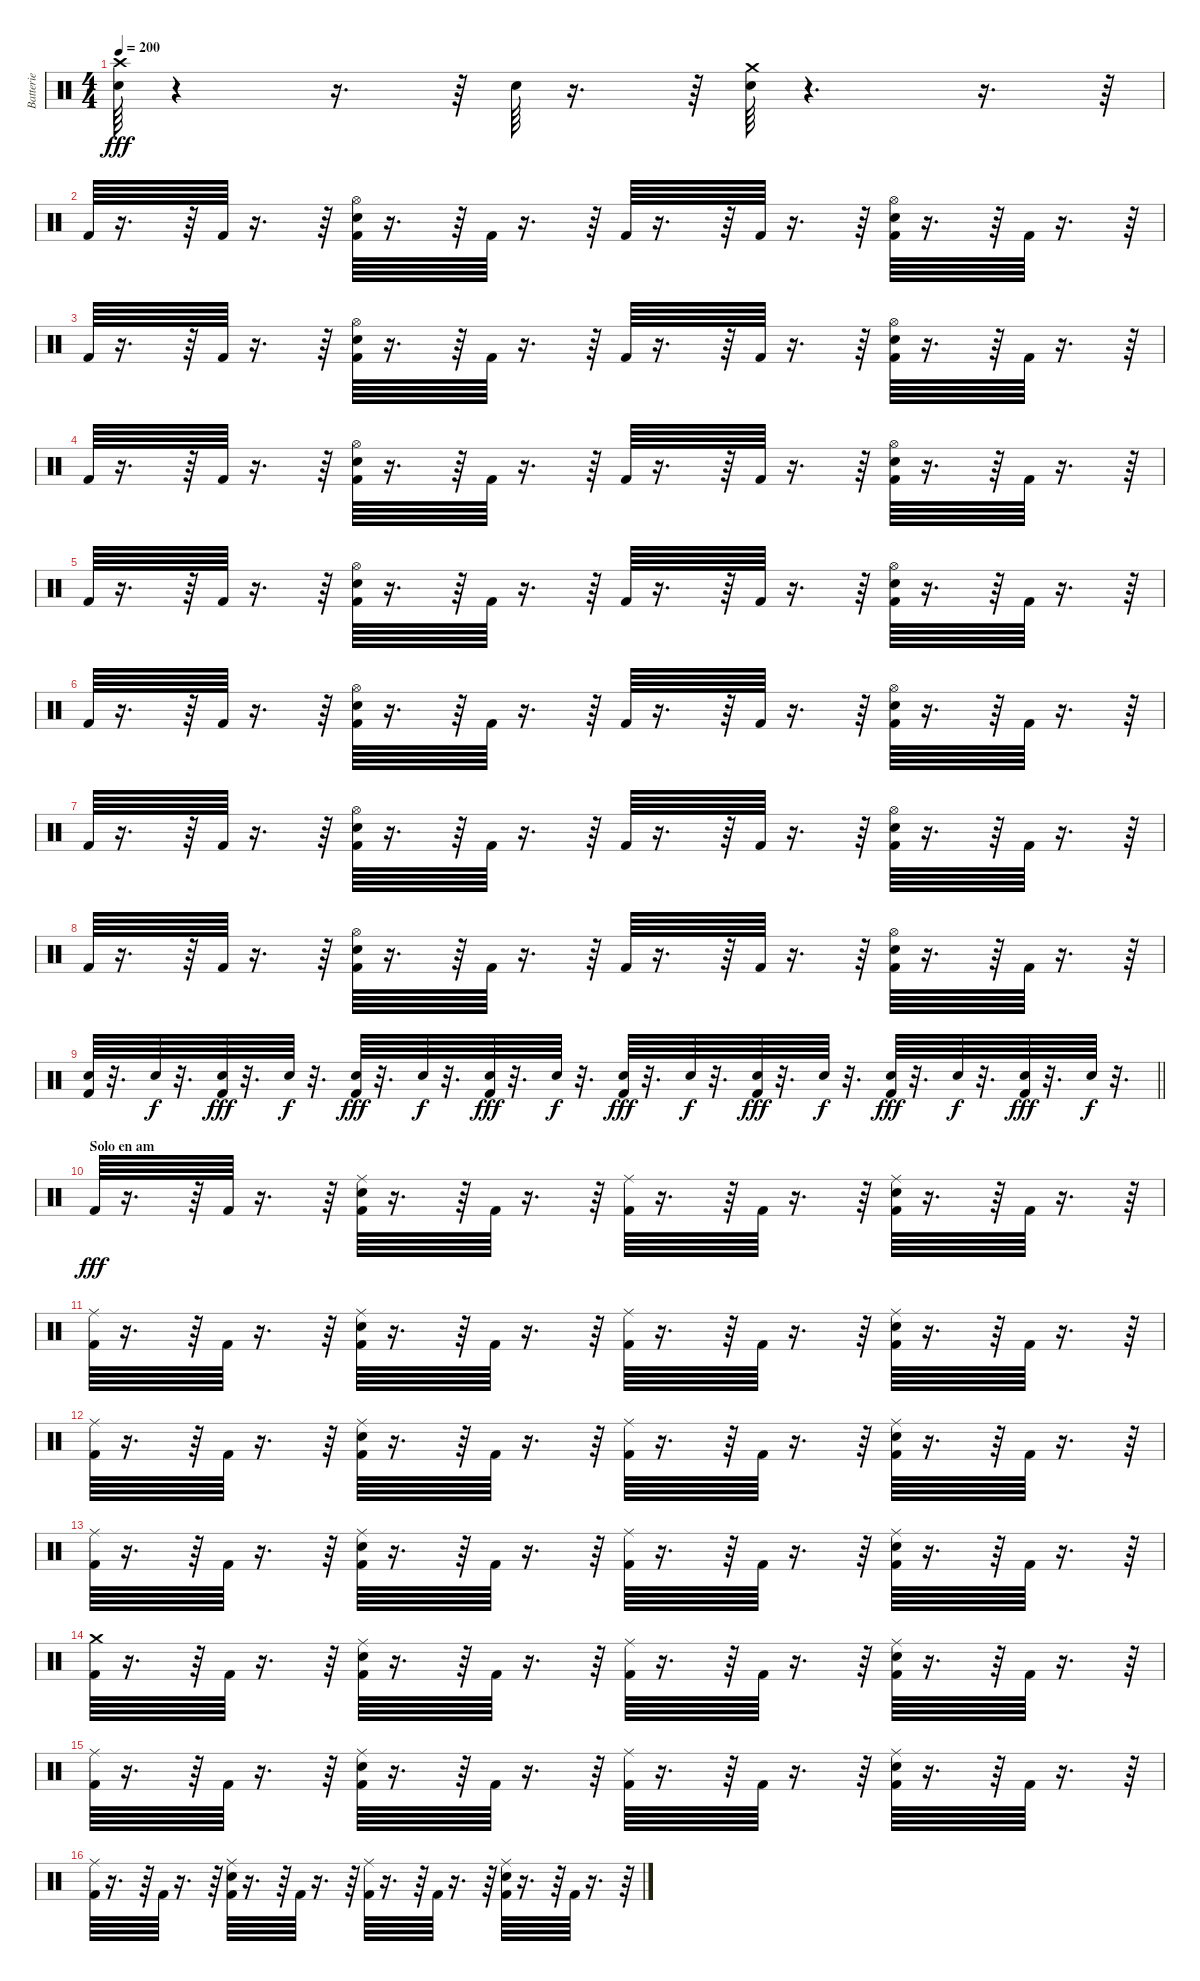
\track ("Batterie" "Batterie") {instrument percussion}
\staff {score}
\articulation defaults
\ts (4 4)
\tempo 200
\clef neutral
\ks c
("Snare (hit) 2" "Crash high (hit)").64{dy fff} r.4 r.16{d} r.64 "Snare (hit) 2".64 r.16{d} r.64 ("Snare (hit) 2" "Crash medium (hit)").64 r.4{d} r.16{d} r.64 |
"Kick (hit) 2".64 r.16{d} r.64 "Kick (hit) 2".64 r.16{d} r.64 ("Kick (hit) 2" "Snare (hit) 2" "Hi-Hat (open)").64 r.16{d} r.64 "Kick (hit) 2".64 r.16{d} r.64 "Kick (hit) 2".64 r.16{d} r.64 "Kick (hit) 2".64 r.16{d} r.64 ("Kick (hit) 2" "Snare (hit) 2" "Hi-Hat (open)").64 r.16{d} r.64 "Kick (hit) 2".64 r.16{d} r.64 |
"Kick (hit) 2".64 r.16{d} r.64 "Kick (hit) 2".64 r.16{d} r.64 ("Kick (hit) 2" "Snare (hit) 2" "Hi-Hat (open)").64 r.16{d} r.64 "Kick (hit) 2".64 r.16{d} r.64 "Kick (hit) 2".64 r.16{d} r.64 "Kick (hit) 2".64 r.16{d} r.64 ("Kick (hit) 2" "Snare (hit) 2" "Hi-Hat (open)").64 r.16{d} r.64 "Kick (hit) 2".64 r.16{d} r.64 |
"Kick (hit) 2".64 r.16{d} r.64 "Kick (hit) 2".64 r.16{d} r.64 ("Kick (hit) 2" "Snare (hit) 2" "Hi-Hat (open)").64 r.16{d} r.64 "Kick (hit) 2".64 r.16{d} r.64 "Kick (hit) 2".64 r.16{d} r.64 "Kick (hit) 2".64 r.16{d} r.64 ("Kick (hit) 2" "Snare (hit) 2" "Hi-Hat (open)").64 r.16{d} r.64 "Kick (hit) 2".64 r.16{d} r.64 |
"Kick (hit) 2".64 r.16{d} r.64 "Kick (hit) 2".64 r.16{d} r.64 ("Kick (hit) 2" "Snare (hit) 2" "Hi-Hat (open)").64 r.16{d} r.64 "Kick (hit) 2".64 r.16{d} r.64 "Kick (hit) 2".64 r.16{d} r.64 "Kick (hit) 2".64 r.16{d} r.64 ("Kick (hit) 2" "Snare (hit) 2" "Hi-Hat (open)").64 r.16{d} r.64 "Kick (hit) 2".64 r.16{d} r.64 |
"Kick (hit) 2".64 r.16{d} r.64 "Kick (hit) 2".64 r.16{d} r.64 ("Kick (hit) 2" "Snare (hit) 2" "Hi-Hat (open)").64 r.16{d} r.64 "Kick (hit) 2".64 r.16{d} r.64 "Kick (hit) 2".64 r.16{d} r.64 "Kick (hit) 2".64 r.16{d} r.64 ("Kick (hit) 2" "Snare (hit) 2" "Hi-Hat (open)").64 r.16{d} r.64 "Kick (hit) 2".64 r.16{d} r.64 |
"Kick (hit) 2".64 r.16{d} r.64 "Kick (hit) 2".64 r.16{d} r.64 ("Kick (hit) 2" "Snare (hit) 2" "Hi-Hat (open)").64 r.16{d} r.64 "Kick (hit) 2".64 r.16{d} r.64 "Kick (hit) 2".64 r.16{d} r.64 "Kick (hit) 2".64 r.16{d} r.64 ("Kick (hit) 2" "Snare (hit) 2" "Hi-Hat (open)").64 r.16{d} r.64 "Kick (hit) 2".64 r.16{d} r.64 |
"Kick (hit) 2".64 r.16{d} r.64 "Kick (hit) 2".64 r.16{d} r.64 ("Kick (hit) 2" "Snare (hit) 2" "Hi-Hat (open)").64 r.16{d} r.64 "Kick (hit) 2".64 r.16{d} r.64 "Kick (hit) 2".64 r.16{d} r.64 "Kick (hit) 2".64 r.16{d} r.64 ("Kick (hit) 2" "Snare (hit) 2" "Hi-Hat (open)").64 r.16{d} r.64 "Kick (hit) 2".64 r.16{d} r.64 |
\barLineRight lightlight
("Kick (hit) 2" "Snare (hit) 2").64 r.32{d} "Snare (hit) 2".64{dy f} r.32{d} ("Kick (hit) 2" "Snare (hit) 2").64{dy fff} r.32{d} "Snare (hit) 2".64{dy f} r.32{d} ("Kick (hit) 2" "Snare (hit) 2").64{dy fff} r.32{d} "Snare (hit) 2".64{dy f} r.32{d} ("Kick (hit) 2" "Snare (hit) 2").64{dy fff} r.32{d} "Snare (hit) 2".64{dy f} r.32{d} ("Kick (hit) 2" "Snare (hit) 2").64{dy fff} r.32{d} "Snare (hit) 2".64{dy f} r.32{d} ("Kick (hit) 2" "Snare (hit) 2").64{dy fff} r.32{d} "Snare (hit) 2".64{dy f} r.32{d} ("Kick (hit) 2" "Snare (hit) 2").64{dy fff} r.32{d} "Snare (hit) 2".64{dy f} r.32{d} ("Kick (hit) 2" "Snare (hit) 2").64{dy fff} r.32{d} "Snare (hit) 2".64{dy f} r.32{d} |
\section ("" "Solo en am")
"Kick (hit) 2".64{dy fff} r.16{d} r.64 "Kick (hit) 2".64 r.16{d} r.64 ("Kick (hit) 2" "Snare (hit) 2" "Ride (middle)").64 r.16{d} r.64 "Kick (hit) 2".64 r.16{d} r.64 ("Kick (hit) 2" "Ride (middle)").64 r.16{d} r.64 "Kick (hit) 2".64 r.16{d} r.64 ("Kick (hit) 2" "Snare (hit) 2" "Ride (middle)").64 r.16{d} r.64 "Kick (hit) 2".64 r.16{d} r.64 |
("Kick (hit) 2" "Ride (middle)").64 r.16{d} r.64 "Kick (hit) 2".64 r.16{d} r.64 ("Kick (hit) 2" "Snare (hit) 2" "Ride (middle)").64 r.16{d} r.64 "Kick (hit) 2".64 r.16{d} r.64 ("Kick (hit) 2" "Ride (middle)").64 r.16{d} r.64 "Kick (hit) 2".64 r.16{d} r.64 ("Kick (hit) 2" "Snare (hit) 2" "Ride (middle)").64 r.16{d} r.64 "Kick (hit) 2".64 r.16{d} r.64 |
("Kick (hit) 2" "Ride (middle)").64 r.16{d} r.64 "Kick (hit) 2".64 r.16{d} r.64 ("Kick (hit) 2" "Snare (hit) 2" "Ride (middle)").64 r.16{d} r.64 "Kick (hit) 2".64 r.16{d} r.64 ("Kick (hit) 2" "Ride (middle)").64 r.16{d} r.64 "Kick (hit) 2".64 r.16{d} r.64 ("Kick (hit) 2" "Snare (hit) 2" "Ride (middle)").64 r.16{d} r.64 "Kick (hit) 2".64 r.16{d} r.64 |
("Kick (hit) 2" "Ride (middle)").64 r.16{d} r.64 "Kick (hit) 2".64 r.16{d} r.64 ("Kick (hit) 2" "Snare (hit) 2" "Ride (middle)").64 r.16{d} r.64 "Kick (hit) 2".64 r.16{d} r.64 ("Kick (hit) 2" "Ride (middle)").64 r.16{d} r.64 "Kick (hit) 2".64 r.16{d} r.64 ("Kick (hit) 2" "Snare (hit) 2" "Ride (middle)").64 r.16{d} r.64 "Kick (hit) 2".64 r.16{d} r.64 |
("Kick (hit) 2" "Crash medium (hit)").64 r.16{d} r.64 "Kick (hit) 2".64 r.16{d} r.64 ("Kick (hit) 2" "Snare (hit) 2" "Ride (middle)").64 r.16{d} r.64 "Kick (hit) 2".64 r.16{d} r.64 ("Kick (hit) 2" "Ride (middle)").64 r.16{d} r.64 "Kick (hit) 2".64 r.16{d} r.64 ("Kick (hit) 2" "Snare (hit) 2" "Ride (middle)").64 r.16{d} r.64 "Kick (hit) 2".64 r.16{d} r.64 |
("Kick (hit) 2" "Ride (middle)").64 r.16{d} r.64 "Kick (hit) 2".64 r.16{d} r.64 ("Kick (hit) 2" "Snare (hit) 2" "Ride (middle)").64 r.16{d} r.64 "Kick (hit) 2".64 r.16{d} r.64 ("Kick (hit) 2" "Ride (middle)").64 r.16{d} r.64 "Kick (hit) 2".64 r.16{d} r.64 ("Kick (hit) 2" "Snare (hit) 2" "Ride (middle)").64 r.16{d} r.64 "Kick (hit) 2".64 r.16{d} r.64 |
("Kick (hit) 2" "Ride (middle)").64 r.16{d} r.64 "Kick (hit) 2".64 r.16{d} r.64 ("Kick (hit) 2" "Snare (hit) 2" "Ride (middle)").64 r.16{d} r.64 "Kick (hit) 2".64 r.16{d} r.64 ("Kick (hit) 2" "Ride (middle)").64 r.16{d} r.64 "Kick (hit) 2".64 r.16{d} r.64 ("Kick (hit) 2" "Snare (hit) 2" "Ride (middle)").64 r.16{d} r.64 "Kick (hit) 2".64 r.16{d} r.64
